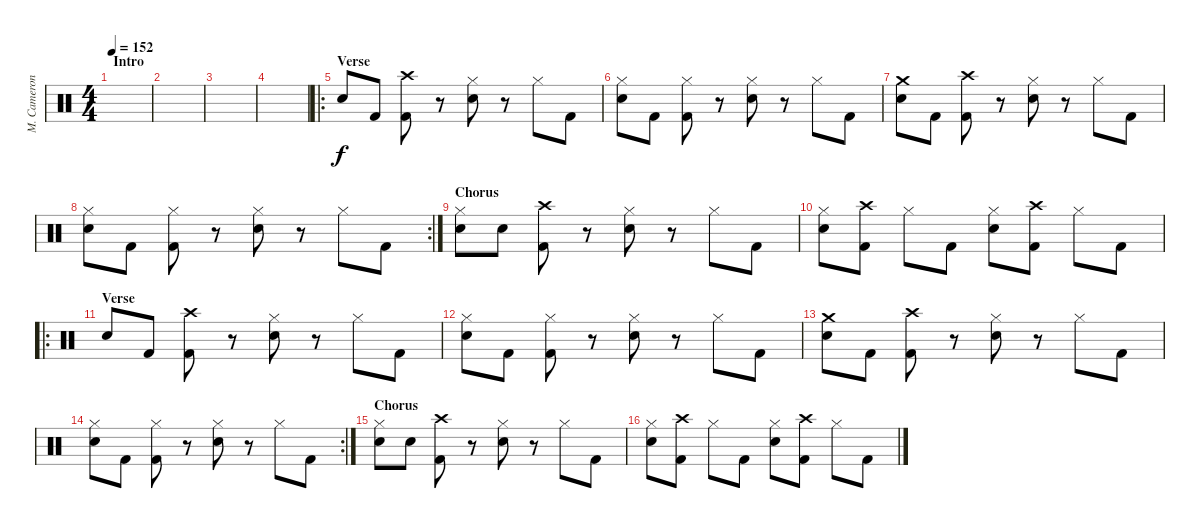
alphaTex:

\track ("M. Cameron" "M. Cameron") {instrument percussion}
\staff {score}
\articulation defaults
\ts (4 4)
\section ("" "Intro")
\tempo 152
\clef neutral
\ks c
|
|
|
|
\ro
\section ("" "Verse")
"Snare (hit) 2".8 "Kick (hit) 2".8 ("Crash high (hit)" "Kick (hit) 2").8 r.8 ("Hi-Hat (closed)" "Snare (hit) 2").8 r.8 "Hi-Hat (closed)".8 "Kick (hit) 2".8 |
("Hi-Hat (closed)" "Snare (hit) 2").8 "Kick (hit) 2".8 ("Hi-Hat (closed)" "Kick (hit) 2").8 r.8 ("Hi-Hat (closed)" "Snare (hit) 2").8 r.8 "Hi-Hat (closed)".8 "Kick (hit) 2".8 |
("Crash medium (hit)" "Snare (hit) 2").8 "Kick (hit) 2".8 ("Crash high (hit)" "Kick (hit) 2").8 r.8 ("Hi-Hat (closed)" "Snare (hit) 2").8 r.8 "Hi-Hat (closed)".8 "Kick (hit) 2".8 |
\rc 2
("Hi-Hat (closed)" "Snare (hit) 2").8 "Kick (hit) 2".8 ("Hi-Hat (closed)" "Kick (hit) 2").8 r.8 ("Hi-Hat (closed)" "Snare (hit) 2").8 r.8 "Hi-Hat (closed)".8 "Kick (hit) 2".8 |
\section ("" "Chorus")
("Hi-Hat (closed)" "Snare (hit) 2").8 "Snare (hit) 2".8 ("Crash high (hit)" "Kick (hit) 2").8 r.8 ("Hi-Hat (closed)" "Snare (hit) 2").8 r.8 "Hi-Hat (closed)".8 "Kick (hit) 2".8 |
("Hi-Hat (closed)" "Snare (hit) 2").8 ("Crash high (hit)" "Kick (hit) 2").8 "Hi-Hat (closed)".8 "Kick (hit) 2".8 ("Hi-Hat (closed)" "Snare (hit) 2").8 ("Crash high (hit)" "Kick (hit) 2").8 "Hi-Hat (closed)".8 "Kick (hit) 2".8 |
\ro
\section ("" "Verse")
"Snare (hit) 2".8 "Kick (hit) 2".8 ("Crash high (hit)" "Kick (hit) 2").8 r.8 ("Hi-Hat (closed)" "Snare (hit) 2").8 r.8 "Hi-Hat (closed)".8 "Kick (hit) 2".8 |
("Hi-Hat (closed)" "Snare (hit) 2").8 "Kick (hit) 2".8 ("Hi-Hat (closed)" "Kick (hit) 2").8 r.8 ("Hi-Hat (closed)" "Snare (hit) 2").8 r.8 "Hi-Hat (closed)".8 "Kick (hit) 2".8 |
("Crash medium (hit)" "Snare (hit) 2").8 "Kick (hit) 2".8 ("Crash high (hit)" "Kick (hit) 2").8 r.8 ("Hi-Hat (closed)" "Snare (hit) 2").8 r.8 "Hi-Hat (closed)".8 "Kick (hit) 2".8 |
\rc 2
("Hi-Hat (closed)" "Snare (hit) 2").8 "Kick (hit) 2".8 ("Hi-Hat (closed)" "Kick (hit) 2").8 r.8 ("Hi-Hat (closed)" "Snare (hit) 2").8 r.8 "Hi-Hat (closed)".8 "Kick (hit) 2".8 |
\section ("" "Chorus")
("Hi-Hat (closed)" "Snare (hit) 2").8 "Snare (hit) 2".8 ("Crash high (hit)" "Kick (hit) 2").8 r.8 ("Hi-Hat (closed)" "Snare (hit) 2").8 r.8 "Hi-Hat (closed)".8 "Kick (hit) 2".8 |
("Hi-Hat (closed)" "Snare (hit) 2").8 ("Crash high (hit)" "Kick (hit) 2").8 "Hi-Hat (closed)".8 "Kick (hit) 2".8 ("Hi-Hat (closed)" "Snare (hit) 2").8 ("Crash high (hit)" "Kick (hit) 2").8 "Hi-Hat (closed)".8 "Kick (hit) 2".8
